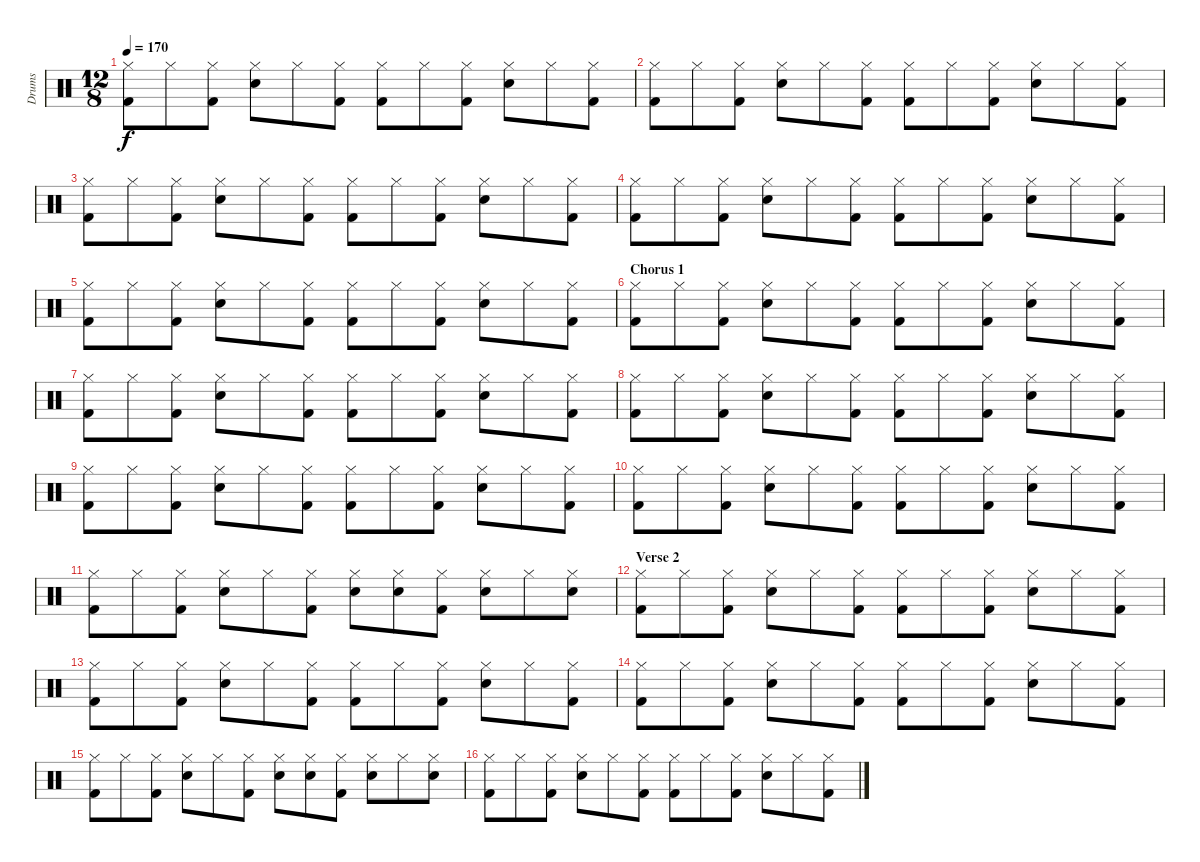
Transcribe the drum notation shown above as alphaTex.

\track ("Drums" "Drums") {instrument percussion}
\staff {score}
\articulation defaults
\ts (12 8)
\tempo 170
\clef neutral
\ks c
("Kick (hit) 2" "Hi-Hat (closed)").8{dy f} "Hi-Hat (closed)".8 ("Kick (hit) 2" "Hi-Hat (closed)").8 ("Snare (hit) 2" "Hi-Hat (closed)").8 "Hi-Hat (closed)".8 ("Kick (hit) 2" "Hi-Hat (closed)").8 ("Kick (hit) 2" "Hi-Hat (closed)").8 "Hi-Hat (closed)".8 ("Kick (hit) 2" "Hi-Hat (closed)").8 ("Snare (hit) 2" "Hi-Hat (closed)").8 "Hi-Hat (closed)".8 ("Kick (hit) 2" "Hi-Hat (closed)").8 |
("Kick (hit) 2" "Hi-Hat (closed)").8 "Hi-Hat (closed)".8 ("Kick (hit) 2" "Hi-Hat (closed)").8 ("Snare (hit) 2" "Hi-Hat (closed)").8 "Hi-Hat (closed)".8 ("Kick (hit) 2" "Hi-Hat (closed)").8 ("Kick (hit) 2" "Hi-Hat (closed)").8 "Hi-Hat (closed)".8 ("Kick (hit) 2" "Hi-Hat (closed)").8 ("Snare (hit) 2" "Hi-Hat (closed)").8 "Hi-Hat (closed)".8 ("Kick (hit) 2" "Hi-Hat (closed)").8 |
("Kick (hit) 2" "Hi-Hat (closed)").8 "Hi-Hat (closed)".8 ("Kick (hit) 2" "Hi-Hat (closed)").8 ("Snare (hit) 2" "Hi-Hat (closed)").8 "Hi-Hat (closed)".8 ("Kick (hit) 2" "Hi-Hat (closed)").8 ("Kick (hit) 2" "Hi-Hat (closed)").8 "Hi-Hat (closed)".8 ("Kick (hit) 2" "Hi-Hat (closed)").8 ("Snare (hit) 2" "Hi-Hat (closed)").8 "Hi-Hat (closed)".8 ("Kick (hit) 2" "Hi-Hat (closed)").8 |
("Kick (hit) 2" "Hi-Hat (closed)").8 "Hi-Hat (closed)".8 ("Kick (hit) 2" "Hi-Hat (closed)").8 ("Snare (hit) 2" "Hi-Hat (closed)").8 "Hi-Hat (closed)".8 ("Kick (hit) 2" "Hi-Hat (closed)").8 ("Kick (hit) 2" "Hi-Hat (closed)").8 "Hi-Hat (closed)".8 ("Kick (hit) 2" "Hi-Hat (closed)").8 ("Snare (hit) 2" "Hi-Hat (closed)").8 "Hi-Hat (closed)".8 ("Kick (hit) 2" "Hi-Hat (closed)").8 |
("Kick (hit) 2" "Hi-Hat (closed)").8 "Hi-Hat (closed)".8 ("Kick (hit) 2" "Hi-Hat (closed)").8 ("Snare (hit) 2" "Hi-Hat (closed)").8 "Hi-Hat (closed)".8 ("Kick (hit) 2" "Hi-Hat (closed)").8 ("Kick (hit) 2" "Hi-Hat (closed)").8 "Hi-Hat (closed)".8 ("Kick (hit) 2" "Hi-Hat (closed)").8 ("Snare (hit) 2" "Hi-Hat (closed)").8 "Hi-Hat (closed)".8 ("Kick (hit) 2" "Hi-Hat (closed)").8 |
\section ("" "Chorus 1")
("Kick (hit) 2" "Hi-Hat (closed)").8 "Hi-Hat (closed)".8 ("Kick (hit) 2" "Hi-Hat (closed)").8 ("Snare (hit) 2" "Hi-Hat (closed)").8 "Hi-Hat (closed)".8 ("Kick (hit) 2" "Hi-Hat (closed)").8 ("Kick (hit) 2" "Hi-Hat (closed)").8 "Hi-Hat (closed)".8 ("Kick (hit) 2" "Hi-Hat (closed)").8 ("Snare (hit) 2" "Hi-Hat (closed)").8 "Hi-Hat (closed)".8 ("Kick (hit) 2" "Hi-Hat (closed)").8 |
("Kick (hit) 2" "Hi-Hat (closed)").8 "Hi-Hat (closed)".8 ("Kick (hit) 2" "Hi-Hat (closed)").8 ("Snare (hit) 2" "Hi-Hat (closed)").8 "Hi-Hat (closed)".8 ("Kick (hit) 2" "Hi-Hat (closed)").8 ("Kick (hit) 2" "Hi-Hat (closed)").8 "Hi-Hat (closed)".8 ("Kick (hit) 2" "Hi-Hat (closed)").8 ("Snare (hit) 2" "Hi-Hat (closed)").8 "Hi-Hat (closed)".8 ("Kick (hit) 2" "Hi-Hat (closed)").8 |
("Kick (hit) 2" "Hi-Hat (closed)").8 "Hi-Hat (closed)".8 ("Kick (hit) 2" "Hi-Hat (closed)").8 ("Snare (hit) 2" "Hi-Hat (closed)").8 "Hi-Hat (closed)".8 ("Kick (hit) 2" "Hi-Hat (closed)").8 ("Kick (hit) 2" "Hi-Hat (closed)").8 "Hi-Hat (closed)".8 ("Kick (hit) 2" "Hi-Hat (closed)").8 ("Snare (hit) 2" "Hi-Hat (closed)").8 "Hi-Hat (closed)".8 ("Kick (hit) 2" "Hi-Hat (closed)").8 |
("Kick (hit) 2" "Hi-Hat (closed)").8 "Hi-Hat (closed)".8 ("Kick (hit) 2" "Hi-Hat (closed)").8 ("Snare (hit) 2" "Hi-Hat (closed)").8 "Hi-Hat (closed)".8 ("Kick (hit) 2" "Hi-Hat (closed)").8 ("Kick (hit) 2" "Hi-Hat (closed)").8 "Hi-Hat (closed)".8 ("Kick (hit) 2" "Hi-Hat (closed)").8 ("Snare (hit) 2" "Hi-Hat (closed)").8 "Hi-Hat (closed)".8 ("Kick (hit) 2" "Hi-Hat (closed)").8 |
("Kick (hit) 2" "Hi-Hat (closed)").8 "Hi-Hat (closed)".8 ("Kick (hit) 2" "Hi-Hat (closed)").8 ("Snare (hit) 2" "Hi-Hat (closed)").8 "Hi-Hat (closed)".8 ("Kick (hit) 2" "Hi-Hat (closed)").8 ("Kick (hit) 2" "Hi-Hat (closed)").8 "Hi-Hat (closed)".8 ("Kick (hit) 2" "Hi-Hat (closed)").8 ("Snare (hit) 2" "Hi-Hat (closed)").8 "Hi-Hat (closed)".8 ("Kick (hit) 2" "Hi-Hat (closed)").8 |
("Kick (hit) 2" "Hi-Hat (closed)").8 "Hi-Hat (closed)".8 ("Kick (hit) 2" "Hi-Hat (closed)").8 ("Snare (hit) 2" "Hi-Hat (closed)").8 "Hi-Hat (closed)".8 ("Kick (hit) 2" "Hi-Hat (closed)").8 ("Snare (hit) 2" "Hi-Hat (closed)").8 ("Snare (hit) 2" "Hi-Hat (closed)").8 ("Kick (hit) 2" "Hi-Hat (closed)").8 ("Snare (hit) 2" "Hi-Hat (closed)").8 "Hi-Hat (closed)".8 ("Snare (hit) 2" "Hi-Hat (closed)").8 |
\section ("" "Verse 2")
("Kick (hit) 2" "Hi-Hat (closed)").8 "Hi-Hat (closed)".8 ("Kick (hit) 2" "Hi-Hat (closed)").8 ("Snare (hit) 2" "Hi-Hat (closed)").8 "Hi-Hat (closed)".8 ("Kick (hit) 2" "Hi-Hat (closed)").8 ("Kick (hit) 2" "Hi-Hat (closed)").8 "Hi-Hat (closed)".8 ("Kick (hit) 2" "Hi-Hat (closed)").8 ("Snare (hit) 2" "Hi-Hat (closed)").8 "Hi-Hat (closed)".8 ("Kick (hit) 2" "Hi-Hat (closed)").8 |
("Kick (hit) 2" "Hi-Hat (closed)").8 "Hi-Hat (closed)".8 ("Kick (hit) 2" "Hi-Hat (closed)").8 ("Snare (hit) 2" "Hi-Hat (closed)").8 "Hi-Hat (closed)".8 ("Kick (hit) 2" "Hi-Hat (closed)").8 ("Kick (hit) 2" "Hi-Hat (closed)").8 "Hi-Hat (closed)".8 ("Kick (hit) 2" "Hi-Hat (closed)").8 ("Snare (hit) 2" "Hi-Hat (closed)").8 "Hi-Hat (closed)".8 ("Kick (hit) 2" "Hi-Hat (closed)").8 |
("Kick (hit) 2" "Hi-Hat (closed)").8 "Hi-Hat (closed)".8 ("Kick (hit) 2" "Hi-Hat (closed)").8 ("Snare (hit) 2" "Hi-Hat (closed)").8 "Hi-Hat (closed)".8 ("Kick (hit) 2" "Hi-Hat (closed)").8 ("Kick (hit) 2" "Hi-Hat (closed)").8 "Hi-Hat (closed)".8 ("Kick (hit) 2" "Hi-Hat (closed)").8 ("Snare (hit) 2" "Hi-Hat (closed)").8 "Hi-Hat (closed)".8 ("Kick (hit) 2" "Hi-Hat (closed)").8 |
("Kick (hit) 2" "Hi-Hat (closed)").8 "Hi-Hat (closed)".8 ("Kick (hit) 2" "Hi-Hat (closed)").8 ("Snare (hit) 2" "Hi-Hat (closed)").8 "Hi-Hat (closed)".8 ("Kick (hit) 2" "Hi-Hat (closed)").8 ("Snare (hit) 2" "Hi-Hat (closed)").8 ("Snare (hit) 2" "Hi-Hat (closed)").8 ("Kick (hit) 2" "Hi-Hat (closed)").8 ("Snare (hit) 2" "Hi-Hat (closed)").8 "Hi-Hat (closed)".8 ("Snare (hit) 2" "Hi-Hat (closed)").8 |
("Kick (hit) 2" "Hi-Hat (closed)").8 "Hi-Hat (closed)".8 ("Kick (hit) 2" "Hi-Hat (closed)").8 ("Snare (hit) 2" "Hi-Hat (closed)").8 "Hi-Hat (closed)".8 ("Kick (hit) 2" "Hi-Hat (closed)").8 ("Kick (hit) 2" "Hi-Hat (closed)").8 "Hi-Hat (closed)".8 ("Kick (hit) 2" "Hi-Hat (closed)").8 ("Snare (hit) 2" "Hi-Hat (closed)").8 "Hi-Hat (closed)".8 ("Kick (hit) 2" "Hi-Hat (closed)").8
